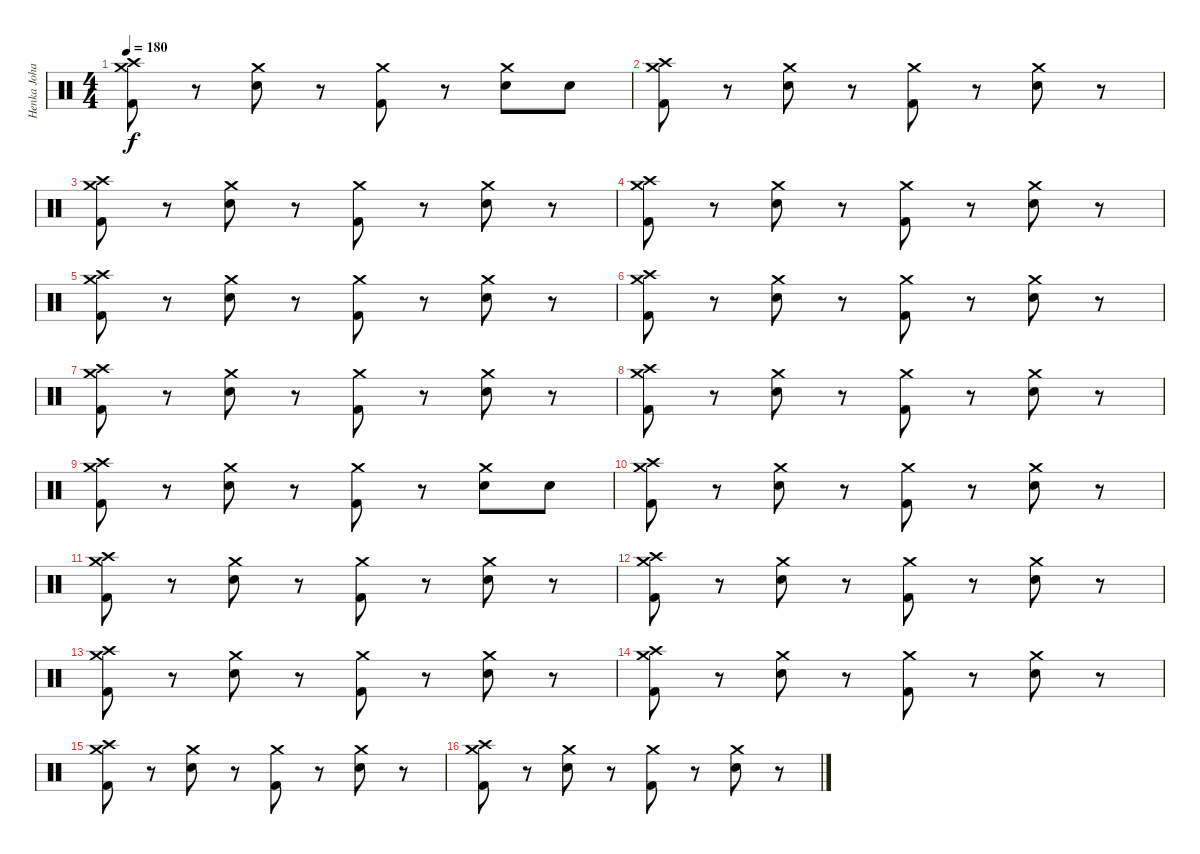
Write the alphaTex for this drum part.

\track ("Henka Johansson" "Henka Joha") {instrument percussion}
\staff {score}
\articulation defaults
\ts (4 4)
\tempo 180
\clef neutral
\ks c
("Crash medium (hit)" "Crash high (hit)" "Kick (hit) 2").8{dy f} r.8 ("Crash medium (hit)" "Snare (hit) 2").8 r.8 ("Crash medium (hit)" "Kick (hit) 2").8 r.8 ("Crash medium (hit)" "Snare (hit) 2").8 "Snare (hit) 2".8 |
("Crash medium (hit)" "Crash high (hit)" "Kick (hit) 2").8 r.8 ("Crash medium (hit)" "Snare (hit) 2").8 r.8 ("Crash medium (hit)" "Kick (hit) 2").8 r.8 ("Crash medium (hit)" "Snare (hit) 2").8 r.8 |
("Crash medium (hit)" "Crash high (hit)" "Kick (hit) 2").8 r.8 ("Crash medium (hit)" "Snare (hit) 2").8 r.8 ("Crash medium (hit)" "Kick (hit) 2").8 r.8 ("Crash medium (hit)" "Snare (hit) 2").8 r.8 |
("Crash medium (hit)" "Crash high (hit)" "Kick (hit) 2").8 r.8 ("Crash medium (hit)" "Snare (hit) 2").8 r.8 ("Crash medium (hit)" "Kick (hit) 2").8 r.8 ("Crash medium (hit)" "Snare (hit) 2").8 r.8 |
("Crash medium (hit)" "Crash high (hit)" "Kick (hit) 2").8 r.8 ("Crash medium (hit)" "Snare (hit) 2").8 r.8 ("Crash medium (hit)" "Kick (hit) 2").8 r.8 ("Crash medium (hit)" "Snare (hit) 2").8 r.8 |
("Crash medium (hit)" "Crash high (hit)" "Kick (hit) 2").8 r.8 ("Crash medium (hit)" "Snare (hit) 2").8 r.8 ("Crash medium (hit)" "Kick (hit) 2").8 r.8 ("Crash medium (hit)" "Snare (hit) 2").8 r.8 |
("Crash medium (hit)" "Crash high (hit)" "Kick (hit) 2").8 r.8 ("Crash medium (hit)" "Snare (hit) 2").8 r.8 ("Crash medium (hit)" "Kick (hit) 2").8 r.8 ("Crash medium (hit)" "Snare (hit) 2").8 r.8 |
("Crash medium (hit)" "Crash high (hit)" "Kick (hit) 2").8 r.8 ("Crash medium (hit)" "Snare (hit) 2").8 r.8 ("Crash medium (hit)" "Kick (hit) 2").8 r.8 ("Crash medium (hit)" "Snare (hit) 2").8 r.8 |
("Crash medium (hit)" "Crash high (hit)" "Kick (hit) 2").8 r.8 ("Crash medium (hit)" "Snare (hit) 2").8 r.8 ("Crash medium (hit)" "Kick (hit) 2").8 r.8 ("Crash medium (hit)" "Snare (hit) 2").8 "Snare (hit) 2".8 |
("Crash medium (hit)" "Crash high (hit)" "Kick (hit) 2").8 r.8 ("Crash medium (hit)" "Snare (hit) 2").8 r.8 ("Crash medium (hit)" "Kick (hit) 2").8 r.8 ("Crash medium (hit)" "Snare (hit) 2").8 r.8 |
("Crash medium (hit)" "Crash high (hit)" "Kick (hit) 2").8 r.8 ("Crash medium (hit)" "Snare (hit) 2").8 r.8 ("Crash medium (hit)" "Kick (hit) 2").8 r.8 ("Crash medium (hit)" "Snare (hit) 2").8 r.8 |
("Crash medium (hit)" "Crash high (hit)" "Kick (hit) 2").8 r.8 ("Crash medium (hit)" "Snare (hit) 2").8 r.8 ("Crash medium (hit)" "Kick (hit) 2").8 r.8 ("Crash medium (hit)" "Snare (hit) 2").8 r.8 |
("Crash medium (hit)" "Crash high (hit)" "Kick (hit) 2").8 r.8 ("Crash medium (hit)" "Snare (hit) 2").8 r.8 ("Crash medium (hit)" "Kick (hit) 2").8 r.8 ("Crash medium (hit)" "Snare (hit) 2").8 r.8 |
("Crash medium (hit)" "Crash high (hit)" "Kick (hit) 2").8 r.8 ("Crash medium (hit)" "Snare (hit) 2").8 r.8 ("Crash medium (hit)" "Kick (hit) 2").8 r.8 ("Crash medium (hit)" "Snare (hit) 2").8 r.8 |
("Crash medium (hit)" "Crash high (hit)" "Kick (hit) 2").8 r.8 ("Crash medium (hit)" "Snare (hit) 2").8 r.8 ("Crash medium (hit)" "Kick (hit) 2").8 r.8 ("Crash medium (hit)" "Snare (hit) 2").8 r.8 |
("Crash medium (hit)" "Crash high (hit)" "Kick (hit) 2").8 r.8 ("Crash medium (hit)" "Snare (hit) 2").8 r.8 ("Crash medium (hit)" "Kick (hit) 2").8 r.8 ("Crash medium (hit)" "Snare (hit) 2").8 r.8
